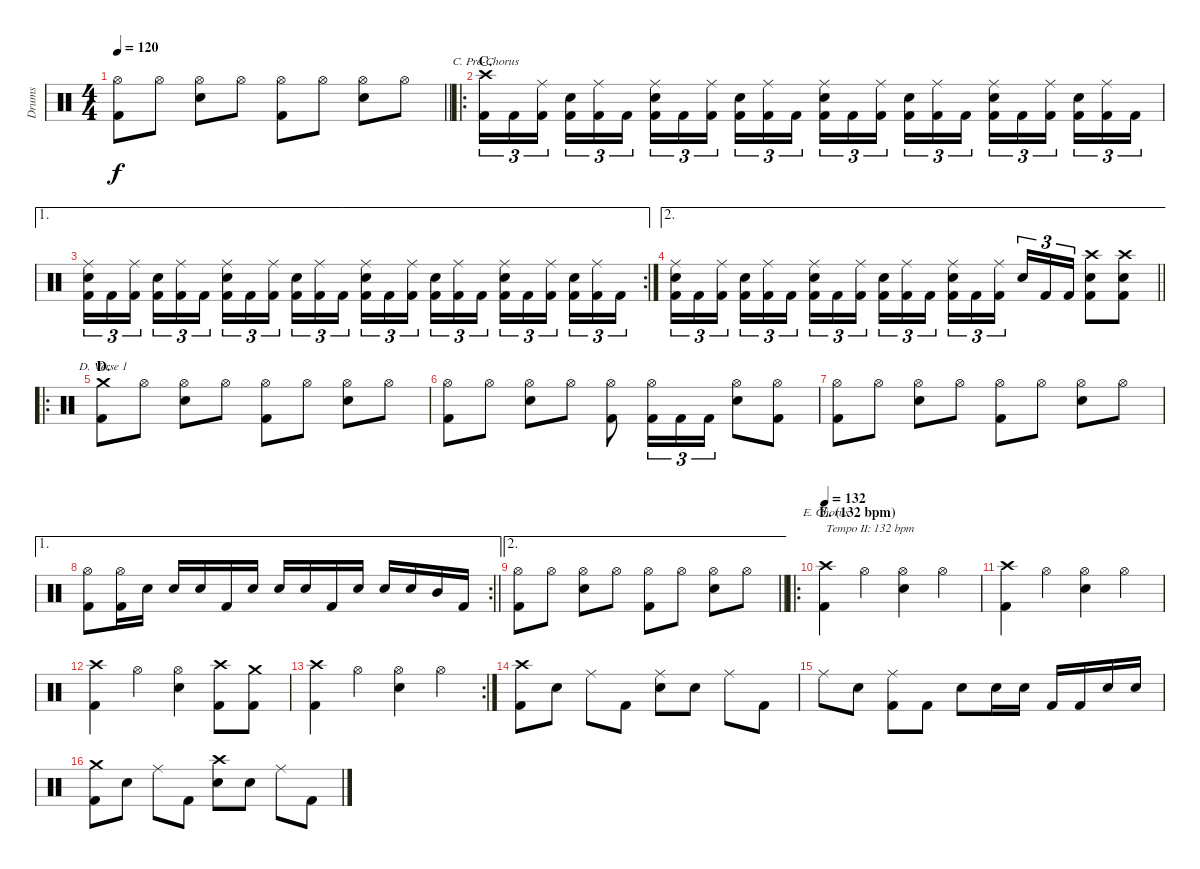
\track ("Drums" "Drums") {instrument percussion}
\staff {score}
\articulation defaults
\chord ("C. Pre-Chorus")
\chord ("D. Verse 1")
\chord ("E. Chorus")
\ts (4 4)
\tempo 120
\clef neutral
\barLineRight lightlight
\ks c
("Hi-Hat (open)" "Kick (hit) 2").8{dy f} "Hi-Hat (open)".8 ("Hi-Hat (open)" "Snare (hit) 2").8 "Hi-Hat (open)".8 ("Hi-Hat (open)" "Kick (hit) 2").8 "Hi-Hat (open)".8 ("Hi-Hat (open)" "Snare (hit) 2").8 "Hi-Hat (open)".8 |
\ro
\section ("" "C.")
("Crash high (hit)" "Kick (hit) 2").16{tu (3 2) ch "C. Pre-Chorus"} "Kick (hit) 2".16{tu (3 2)} ("Ride (middle)" "Kick (hit) 2").16{tu (3 2)} ("Snare (hit) 2" "Kick (hit) 2").16{tu (3 2)} ("Ride (middle)" "Kick (hit) 2").16{tu (3 2)} "Kick (hit) 2".16{tu (3 2)} ("Ride (middle)" "Snare (hit) 2" "Kick (hit) 2").16{tu (3 2)} "Kick (hit) 2".16{tu (3 2)} ("Ride (middle)" "Kick (hit) 2").16{tu (3 2)} ("Snare (hit) 2" "Kick (hit) 2").16{tu (3 2)} ("Ride (middle)" "Kick (hit) 2").16{tu (3 2)} "Kick (hit) 2".16{tu (3 2)} ("Ride (middle)" "Snare (hit) 2" "Kick (hit) 2").16{tu (3 2)} "Kick (hit) 2".16{tu (3 2)} ("Ride (middle)" "Kick (hit) 2").16{tu (3 2)} ("Snare (hit) 2" "Kick (hit) 2").16{tu (3 2)} ("Ride (middle)" "Kick (hit) 2").16{tu (3 2)} "Kick (hit) 2".16{tu (3 2)} ("Ride (middle)" "Snare (hit) 2" "Kick (hit) 2").16{tu (3 2)} "Kick (hit) 2".16{tu (3 2)} ("Ride (middle)" "Kick (hit) 2").16{tu (3 2)} ("Snare (hit) 2" "Kick (hit) 2").16{tu (3 2)} ("Ride (middle)" "Kick (hit) 2").16{tu (3 2)} "Kick (hit) 2".16{tu (3 2)} |
\ae 1
\rc 2
("Ride (middle)" "Snare (hit) 2" "Kick (hit) 2").16{tu (3 2)} "Kick (hit) 2".16{tu (3 2)} ("Ride (middle)" "Kick (hit) 2").16{tu (3 2)} ("Snare (hit) 2" "Kick (hit) 2").16{tu (3 2)} ("Ride (middle)" "Kick (hit) 2").16{tu (3 2)} "Kick (hit) 2".16{tu (3 2)} ("Ride (middle)" "Snare (hit) 2" "Kick (hit) 2").16{tu (3 2)} "Kick (hit) 2".16{tu (3 2)} ("Ride (middle)" "Kick (hit) 2").16{tu (3 2)} ("Snare (hit) 2" "Kick (hit) 2").16{tu (3 2)} ("Ride (middle)" "Kick (hit) 2").16{tu (3 2)} "Kick (hit) 2".16{tu (3 2)} ("Ride (middle)" "Snare (hit) 2" "Kick (hit) 2").16{tu (3 2)} "Kick (hit) 2".16{tu (3 2)} ("Ride (middle)" "Kick (hit) 2").16{tu (3 2)} ("Snare (hit) 2" "Kick (hit) 2").16{tu (3 2)} ("Ride (middle)" "Kick (hit) 2").16{tu (3 2)} "Kick (hit) 2".16{tu (3 2)} ("Ride (middle)" "Snare (hit) 2" "Kick (hit) 2").16{tu (3 2)} "Kick (hit) 2".16{tu (3 2)} ("Ride (middle)" "Kick (hit) 2").16{tu (3 2)} ("Snare (hit) 2" "Kick (hit) 2").16{tu (3 2)} ("Ride (middle)" "Kick (hit) 2").16{tu (3 2)} "Kick (hit) 2".16{tu (3 2)} |
\ae 2
\barLineRight lightlight
("Ride (middle)" "Snare (hit) 2" "Kick (hit) 2").16{tu (3 2)} "Kick (hit) 2".16{tu (3 2)} ("Ride (middle)" "Kick (hit) 2").16{tu (3 2)} ("Snare (hit) 2" "Kick (hit) 2").16{tu (3 2)} ("Ride (middle)" "Kick (hit) 2").16{tu (3 2)} "Kick (hit) 2".16{tu (3 2)} ("Ride (middle)" "Snare (hit) 2" "Kick (hit) 2").16{tu (3 2)} "Kick (hit) 2".16{tu (3 2)} ("Ride (middle)" "Kick (hit) 2").16{tu (3 2)} ("Snare (hit) 2" "Kick (hit) 2").16{tu (3 2)} ("Ride (middle)" "Kick (hit) 2").16{tu (3 2)} "Kick (hit) 2".16{tu (3 2)} ("Ride (middle)" "Snare (hit) 2" "Kick (hit) 2").16{tu (3 2)} "Kick (hit) 2".16{tu (3 2)} ("Ride (middle)" "Kick (hit) 2").16{tu (3 2)} "Snare (hit) 2".16{tu (3 2)} "Kick (hit) 2".16{tu (3 2)} "Kick (hit) 2".16{tu (3 2)} ("Crash high (hit)" "Snare (hit) 2" "Kick (hit) 2").8 ("Crash high (hit)" "Snare (hit) 2" "Kick (hit) 2").8 |
\ro
\section ("" "D.")
("Crash medium (hit)" "Kick (hit) 2").8{ch "D. Verse 1"} "Hi-Hat (open)".8 ("Hi-Hat (open)" "Snare (hit) 2").8 "Hi-Hat (open)".8 ("Hi-Hat (open)" "Kick (hit) 2").8 "Hi-Hat (open)".8 ("Hi-Hat (open)" "Snare (hit) 2").8 "Hi-Hat (open)".8 |
("Hi-Hat (open)" "Kick (hit) 2").8 "Hi-Hat (open)".8 ("Hi-Hat (open)" "Snare (hit) 2").8 "Hi-Hat (open)".8 ("Hi-Hat (open)" "Kick (hit) 2").8 ("Hi-Hat (open)" "Kick (hit) 2").16{tu (3 2)} "Kick (hit) 2".16{tu (3 2)} "Kick (hit) 2".16{tu (3 2)} ("Hi-Hat (open)" "Snare (hit) 2").8 ("Hi-Hat (open)" "Kick (hit) 2").8 |
("Hi-Hat (open)" "Kick (hit) 2").8 "Hi-Hat (open)".8 ("Hi-Hat (open)" "Snare (hit) 2").8 "Hi-Hat (open)".8 ("Hi-Hat (open)" "Kick (hit) 2").8 "Hi-Hat (open)".8 ("Hi-Hat (open)" "Snare (hit) 2").8 "Hi-Hat (open)".8 |
\ae 1
\rc 2
\barLineRight lightlight
("Hi-Hat (open)" "Kick (hit) 2").8 ("Hi-Hat (open)" "Kick (hit) 2").16 "Snare (hit) 2".16 "Snare (hit) 2".16 "Snare (hit) 2".16 "Kick (hit) 2".16 "Snare (hit) 2".16 "Snare (hit) 2".16 "Snare (hit) 2".16 "Kick (hit) 2".16 "Snare (hit) 2".16 "Snare (hit) 2".16 "Snare (hit) 2".16 "Mid Tom (hit)".16 "Kick (hit) 2".16 |
\ae 2
\barLineRight lightlight
("Hi-Hat (open)" "Kick (hit) 2").8 "Hi-Hat (open)".8 ("Hi-Hat (open)" "Snare (hit) 2").8 "Hi-Hat (open)".8 ("Hi-Hat (open)" "Kick (hit) 2").8 "Hi-Hat (open)".8 ("Hi-Hat (open)" "Snare (hit) 2").8 "Hi-Hat (open)".8 |
\ro
\section ("" "E. (132 bpm)")
\tempo 132
("Crash high (hit)" "Kick (hit) 2").4{ch "E. Chorus" txt "Tempo II: 132 bpm"} "Hi-Hat (open)".4 ("Hi-Hat (open)" "Snare (hit) 2").4 "Hi-Hat (open)".4 |
("Crash high (hit)" "Kick (hit) 2").4 "Hi-Hat (open)".4 ("Hi-Hat (open)" "Snare (hit) 2").4 "Hi-Hat (open)".4 |
("Crash high (hit)" "Kick (hit) 2").4 "Hi-Hat (open)".4 ("Hi-Hat (open)" "Snare (hit) 2").4 ("Crash high (hit)" "Kick (hit) 2").8 ("Crash medium (hit)" "Kick (hit) 2").8 |
\rc 2
("Crash high (hit)" "Kick (hit) 2").4 "Hi-Hat (open)".4 ("Hi-Hat (open)" "Snare (hit) 2").4 "Hi-Hat (open)".4 |
("Crash high (hit)" "Kick (hit) 2").8 "Snare (hit) 2".8 "Ride (middle)".8 "Kick (hit) 2".8 ("Ride (middle)" "Snare (hit) 2").8 "Snare (hit) 2".8 "Ride (middle)".8 "Kick (hit) 2".8 |
"Ride (middle)".8 "Snare (hit) 2".8 ("Ride (middle)" "Kick (hit) 2").8 "Kick (hit) 2".8 "Snare (hit) 2".8 "Snare (hit) 2".16 "Snare (hit) 2".16 "Kick (hit) 2".16 "Kick (hit) 2".16 "Snare (hit) 2".16 "Snare (hit) 2".16 |
("Crash medium (hit)" "Kick (hit) 2").8 "Snare (hit) 2".8 "Ride (middle)".8 "Kick (hit) 2".8 ("Crash high (hit)" "Snare (hit) 2").8 "Snare (hit) 2".8 "Ride (middle)".8 "Kick (hit) 2".8
